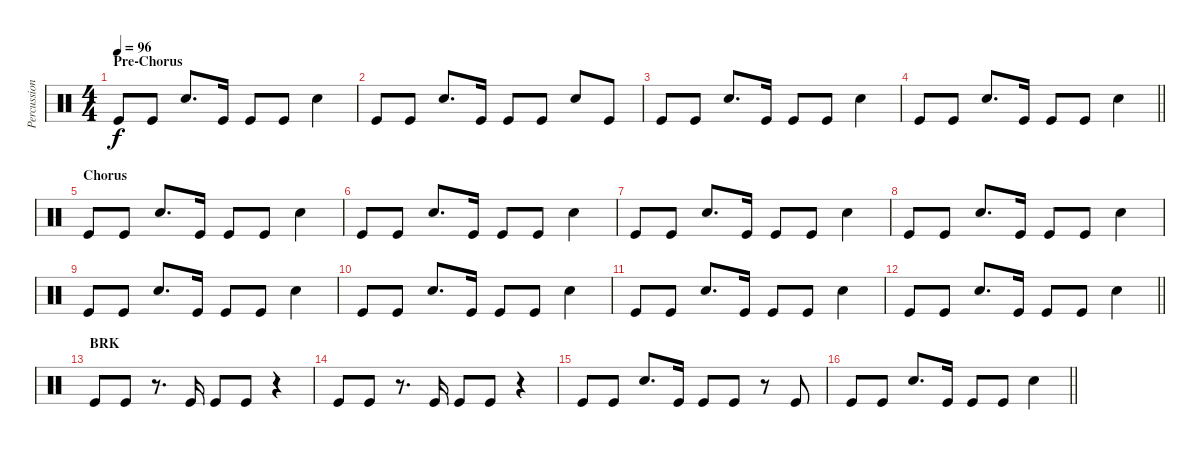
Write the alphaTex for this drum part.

\track ("Percussion" "Percussion") {instrument percussion}
\staff {score}
\articulation defaults
\ts (4 4)
\section ("" "Pre-Chorus")
\tempo 96
\clef neutral
\ks c "Kick (hit)".8{dy f} "Kick (hit)".8 "Electric Snare (hit)".8{d} "Kick (hit)".16 "Kick (hit)".8 "Kick (hit)".8 "Electric Snare (hit)".4
|
"Kick (hit)".8 "Kick (hit)".8 "Electric Snare (hit)".8{d} "Kick (hit)".16 "Kick (hit)".8 "Kick (hit)".8 "Electric Snare (hit)".8 "Kick (hit)".8 |
"Kick (hit)".8 "Kick (hit)".8 "Electric Snare (hit)".8{d} "Kick (hit)".16 "Kick (hit)".8 "Kick (hit)".8 "Electric Snare (hit)".4 |
\barLineRight lightlight "Kick (hit)".8 "Kick (hit)".8 "Electric Snare (hit)".8{d} "Kick (hit)".16 "Kick (hit)".8 "Kick (hit)".8 "Electric Snare (hit)".4
|
\section ("" "Chorus")
"Kick (hit)".8 "Kick (hit)".8 "Electric Snare (hit)".8{d} "Kick (hit)".16 "Kick (hit)".8 "Kick (hit)".8 "Electric Snare (hit)".4 |
"Kick (hit)".8 "Kick (hit)".8 "Electric Snare (hit)".8{d} "Kick (hit)".16 "Kick (hit)".8 "Kick (hit)".8 "Electric Snare (hit)".4 |
"Kick (hit)".8 "Kick (hit)".8 "Electric Snare (hit)".8{d} "Kick (hit)".16 "Kick (hit)".8 "Kick (hit)".8 "Electric Snare (hit)".4 |
"Kick (hit)".8 "Kick (hit)".8 "Electric Snare (hit)".8{d} "Kick (hit)".16 "Kick (hit)".8 "Kick (hit)".8 "Electric Snare (hit)".4 |
"Kick (hit)".8 "Kick (hit)".8 "Electric Snare (hit)".8{d} "Kick (hit)".16 "Kick (hit)".8 "Kick (hit)".8 "Electric Snare (hit)".4 |
"Kick (hit)".8 "Kick (hit)".8 "Electric Snare (hit)".8{d} "Kick (hit)".16 "Kick (hit)".8 "Kick (hit)".8 "Electric Snare (hit)".4 |
"Kick (hit)".8 "Kick (hit)".8 "Electric Snare (hit)".8{d} "Kick (hit)".16 "Kick (hit)".8 "Kick (hit)".8 "Electric Snare (hit)".4 |
\barLineRight lightlight "Kick (hit)".8 "Kick (hit)".8 "Electric Snare (hit)".8{d} "Kick (hit)".16 "Kick (hit)".8 "Kick (hit)".8 "Electric Snare (hit)".4
|
\section ("" "BRK")
"Kick (hit)".8 "Kick (hit)".8 r.8{d} "Kick (hit)".16 "Kick (hit)".8 "Kick (hit)".8 r.4 |
"Kick (hit)".8 "Kick (hit)".8 r.8{d} "Kick (hit)".16 "Kick (hit)".8 "Kick (hit)".8 r.4 |
"Kick (hit)".8 "Kick (hit)".8 "Electric Snare (hit)".8{d} "Kick (hit)".16 "Kick (hit)".8 "Kick (hit)".8 r.8 "Kick (hit)".8 |
\barLineRight lightlight "Kick (hit)".8 "Kick (hit)".8 "Electric Snare (hit)".8{d} "Kick (hit)".16 "Kick (hit)".8 "Kick (hit)".8 "Electric Snare (hit)".4
